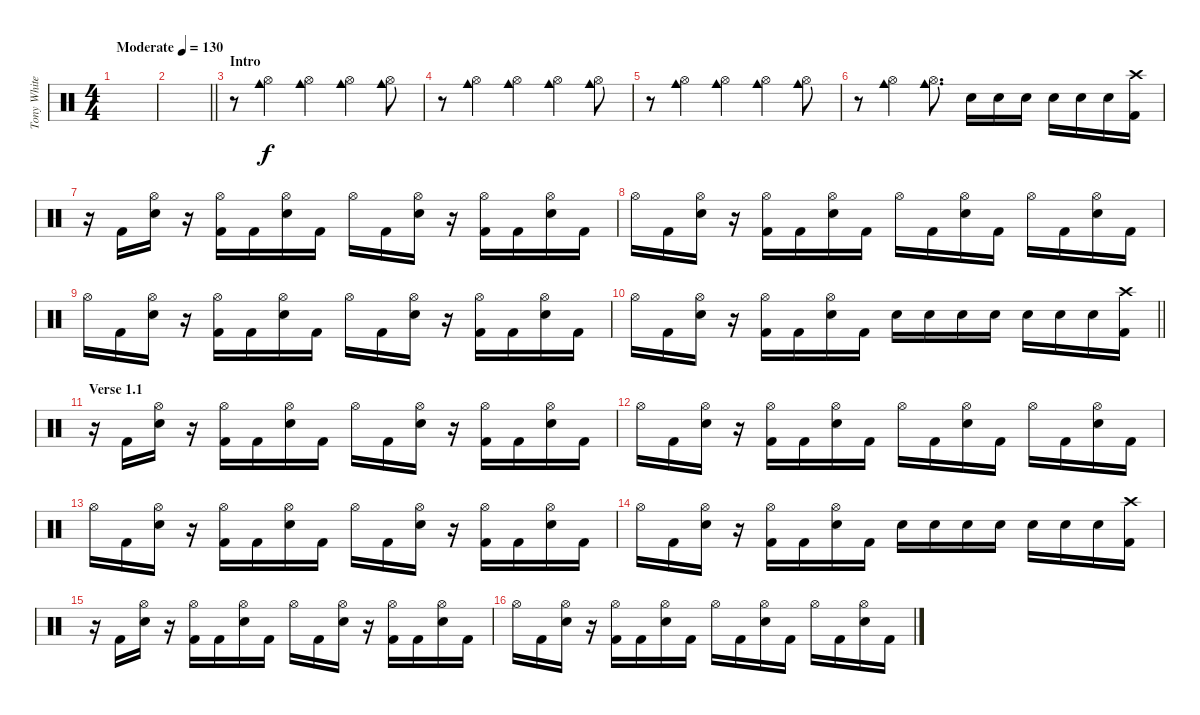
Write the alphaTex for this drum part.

\track ("Tony White" "Tony White") {instrument percussion}
\staff {score}
\articulation defaults
\ts (4 4)
\tempo (130 "Moderate")
\clef neutral
\ks c
|
\barLineRight lightlight
|
\section ("" "Intro")
r.8 ("Hi-Hat (open)" "Cowbell medium (hit)").4 ("Hi-Hat (open)" "Cowbell medium (hit)").4 ("Hi-Hat (open)" "Cowbell medium (hit)").4 ("Hi-Hat (open)" "Cowbell medium (hit)").8 |
r.8 ("Hi-Hat (open)" "Cowbell medium (hit)").4 ("Hi-Hat (open)" "Cowbell medium (hit)").4 ("Hi-Hat (open)" "Cowbell medium (hit)").4 ("Hi-Hat (open)" "Cowbell medium (hit)").8 |
r.8 ("Hi-Hat (open)" "Cowbell medium (hit)").4 ("Hi-Hat (open)" "Cowbell medium (hit)").4 ("Hi-Hat (open)" "Cowbell medium (hit)").4 ("Hi-Hat (open)" "Cowbell medium (hit)").8 |
r.8 ("Hi-Hat (open)" "Cowbell medium (hit)").4 ("Hi-Hat (open)" "Cowbell medium (hit)").8{d} "Electric Snare (hit)".16 "Electric Snare (hit)".16 "Electric Snare (hit)".16 "Electric Snare (hit)".16 "Electric Snare (hit)".16 "Electric Snare (hit)".16 ("Crash high (hit)" "Kick (hit) 2").16 |
r.16 "Kick (hit) 2".16 ("Hi-Hat (open)" "Electric Snare (hit)").16 r.16 ("Hi-Hat (open)" "Kick (hit) 2").16 "Kick (hit) 2".16 ("Hi-Hat (open)" "Electric Snare (hit)").16 "Kick (hit) 2".16 "Hi-Hat (open)".16 "Kick (hit) 2".16 ("Hi-Hat (open)" "Electric Snare (hit)").16 r.16 ("Hi-Hat (open)" "Kick (hit) 2").16 "Kick (hit) 2".16 ("Hi-Hat (open)" "Electric Snare (hit)").16 "Kick (hit) 2".16 |
"Hi-Hat (open)".16 "Kick (hit) 2".16 ("Hi-Hat (open)" "Electric Snare (hit)").16 r.16 ("Hi-Hat (open)" "Kick (hit) 2").16 "Kick (hit) 2".16 ("Hi-Hat (open)" "Electric Snare (hit)").16 "Kick (hit) 2".16 "Hi-Hat (open)".16 "Kick (hit) 2".16 ("Hi-Hat (open)" "Electric Snare (hit)").16 "Kick (hit) 2".16 "Hi-Hat (open)".16 "Kick (hit) 2".16 ("Hi-Hat (open)" "Electric Snare (hit)").16 "Kick (hit) 2".16 |
"Hi-Hat (open)".16 "Kick (hit) 2".16 ("Hi-Hat (open)" "Electric Snare (hit)").16 r.16 ("Hi-Hat (open)" "Kick (hit) 2").16 "Kick (hit) 2".16 ("Hi-Hat (open)" "Electric Snare (hit)").16 "Kick (hit) 2".16 "Hi-Hat (open)".16 "Kick (hit) 2".16 ("Hi-Hat (open)" "Electric Snare (hit)").16 r.16 ("Hi-Hat (open)" "Kick (hit) 2").16 "Kick (hit) 2".16 ("Hi-Hat (open)" "Electric Snare (hit)").16 "Kick (hit) 2".16 |
\barLineRight lightlight "Hi-Hat (open)".16 "Kick (hit) 2".16
("Hi-Hat (open)" "Electric Snare (hit)").16 r.16 ("Hi-Hat (open)" "Kick (hit) 2").16 "Kick (hit) 2".16 ("Hi-Hat (open)" "Electric Snare (hit)").16 "Kick (hit) 2".16 "Electric Snare (hit)".16 "Electric Snare (hit)".16 "Electric Snare (hit)".16 "Electric Snare (hit)".16 "Electric Snare (hit)".16 "Electric Snare (hit)".16 "Electric Snare (hit)".16 ("Crash high (hit)" "Kick (hit) 2").16 |
\section ("" "Verse 1.1")
r.16 "Kick (hit) 2".16 ("Hi-Hat (open)" "Electric Snare (hit)").16 r.16 ("Hi-Hat (open)" "Kick (hit) 2").16 "Kick (hit) 2".16 ("Hi-Hat (open)" "Electric Snare (hit)").16 "Kick (hit) 2".16 "Hi-Hat (open)".16 "Kick (hit) 2".16 ("Hi-Hat (open)" "Electric Snare (hit)").16 r.16 ("Hi-Hat (open)" "Kick (hit) 2").16 "Kick (hit) 2".16 ("Hi-Hat (open)" "Electric Snare (hit)").16 "Kick (hit) 2".16 |
"Hi-Hat (open)".16 "Kick (hit) 2".16 ("Hi-Hat (open)" "Electric Snare (hit)").16 r.16 ("Hi-Hat (open)" "Kick (hit) 2").16 "Kick (hit) 2".16 ("Hi-Hat (open)" "Electric Snare (hit)").16 "Kick (hit) 2".16 "Hi-Hat (open)".16 "Kick (hit) 2".16 ("Hi-Hat (open)" "Electric Snare (hit)").16 "Kick (hit) 2".16 "Hi-Hat (open)".16 "Kick (hit) 2".16 ("Hi-Hat (open)" "Electric Snare (hit)").16 "Kick (hit) 2".16 |
"Hi-Hat (open)".16 "Kick (hit) 2".16 ("Hi-Hat (open)" "Electric Snare (hit)").16 r.16 ("Hi-Hat (open)" "Kick (hit) 2").16 "Kick (hit) 2".16 ("Hi-Hat (open)" "Electric Snare (hit)").16 "Kick (hit) 2".16 "Hi-Hat (open)".16 "Kick (hit) 2".16 ("Hi-Hat (open)" "Electric Snare (hit)").16 r.16 ("Hi-Hat (open)" "Kick (hit) 2").16 "Kick (hit) 2".16 ("Hi-Hat (open)" "Electric Snare (hit)").16 "Kick (hit) 2".16 |
"Hi-Hat (open)".16 "Kick (hit) 2".16 ("Hi-Hat (open)" "Electric Snare (hit)").16 r.16 ("Hi-Hat (open)" "Kick (hit) 2").16 "Kick (hit) 2".16 ("Hi-Hat (open)" "Electric Snare (hit)").16 "Kick (hit) 2".16 "Electric Snare (hit)".16 "Electric Snare (hit)".16 "Electric Snare (hit)".16 "Electric Snare (hit)".16 "Electric Snare (hit)".16 "Electric Snare (hit)".16 "Electric Snare (hit)".16 ("Crash high (hit)" "Kick (hit) 2").16 |
r.16 "Kick (hit) 2".16 ("Hi-Hat (open)" "Electric Snare (hit)").16 r.16 ("Hi-Hat (open)" "Kick (hit) 2").16 "Kick (hit) 2".16 ("Hi-Hat (open)" "Electric Snare (hit)").16 "Kick (hit) 2".16 "Hi-Hat (open)".16 "Kick (hit) 2".16 ("Hi-Hat (open)" "Electric Snare (hit)").16 r.16 ("Hi-Hat (open)" "Kick (hit) 2").16 "Kick (hit) 2".16 ("Hi-Hat (open)" "Electric Snare (hit)").16 "Kick (hit) 2".16 |
"Hi-Hat (open)".16 "Kick (hit) 2".16 ("Hi-Hat (open)" "Electric Snare (hit)").16 r.16 ("Hi-Hat (open)" "Kick (hit) 2").16 "Kick (hit) 2".16 ("Hi-Hat (open)" "Electric Snare (hit)").16 "Kick (hit) 2".16 "Hi-Hat (open)".16 "Kick (hit) 2".16 ("Hi-Hat (open)" "Electric Snare (hit)").16 "Kick (hit) 2".16 "Hi-Hat (open)".16 "Kick (hit) 2".16 ("Hi-Hat (open)" "Electric Snare (hit)").16 "Kick (hit) 2".16
